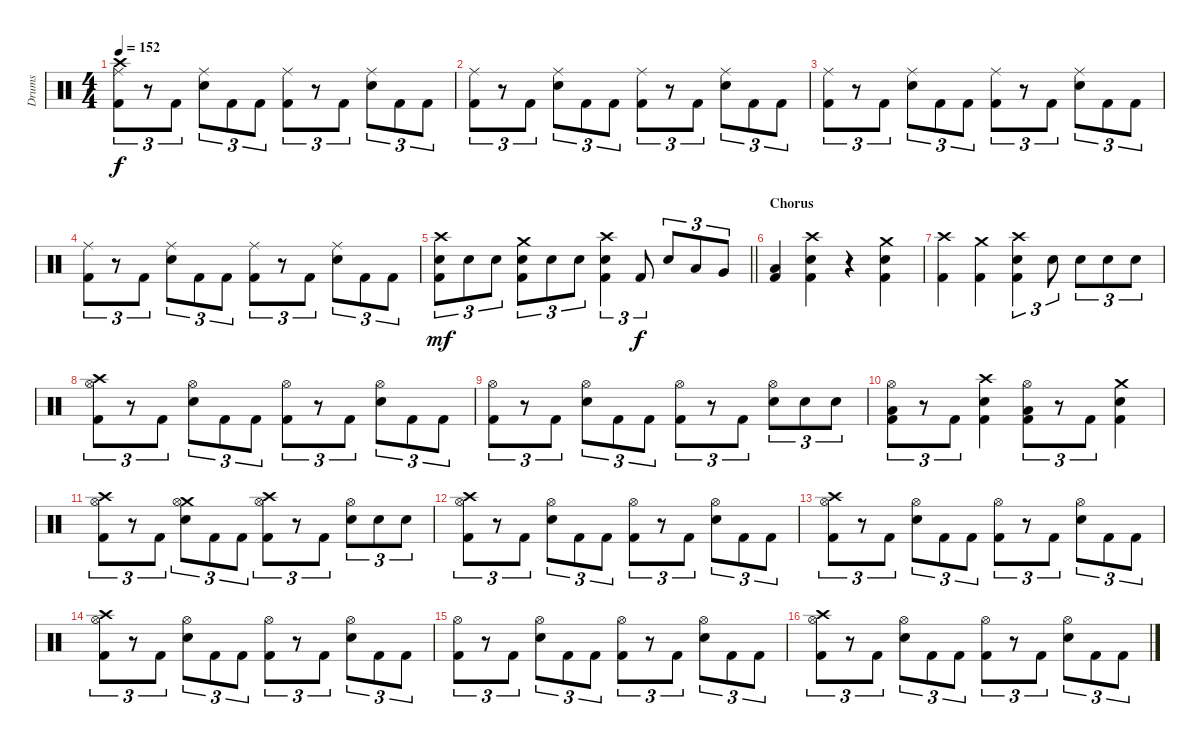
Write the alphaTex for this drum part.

\track ("Drums" "Drums") {instrument percussion}
\staff {score}
\articulation defaults
\ts (4 4)
\tempo 152
\clef neutral
\ks c
("Crash high (hit)" "Ride (middle)" "Kick (hit) 2").8{tu (3 2) dy f} r.8{tu (3 2)} "Kick (hit) 2".8{tu (3 2)} ("Ride (middle)" "Snare (hit) 2").8{tu (3 2)} "Kick (hit) 2".8{tu (3 2)} "Kick (hit) 2".8{tu (3 2)} ("Ride (middle)" "Kick (hit) 2").8{tu (3 2)} r.8{tu (3 2)} "Kick (hit) 2".8{tu (3 2)} ("Ride (middle)" "Snare (hit) 2").8{tu (3 2)} "Kick (hit) 2".8{tu (3 2)} "Kick (hit) 2".8{tu (3 2)} |
("Ride (middle)" "Kick (hit) 2").8{tu (3 2)} r.8{tu (3 2)} "Kick (hit) 2".8{tu (3 2)} ("Ride (middle)" "Snare (hit) 2").8{tu (3 2)} "Kick (hit) 2".8{tu (3 2)} "Kick (hit) 2".8{tu (3 2)} ("Ride (middle)" "Kick (hit) 2").8{tu (3 2)} r.8{tu (3 2)} "Kick (hit) 2".8{tu (3 2)} ("Ride (middle)" "Snare (hit) 2").8{tu (3 2)} "Kick (hit) 2".8{tu (3 2)} "Kick (hit) 2".8{tu (3 2)} |
("Ride (middle)" "Kick (hit) 2").8{tu (3 2)} r.8{tu (3 2)} "Kick (hit) 2".8{tu (3 2)} ("Ride (middle)" "Snare (hit) 2").8{tu (3 2)} "Kick (hit) 2".8{tu (3 2)} "Kick (hit) 2".8{tu (3 2)} ("Ride (middle)" "Kick (hit) 2").8{tu (3 2)} r.8{tu (3 2)} "Kick (hit) 2".8{tu (3 2)} ("Ride (middle)" "Snare (hit) 2").8{tu (3 2)} "Kick (hit) 2".8{tu (3 2)} "Kick (hit) 2".8{tu (3 2)} |
("Ride (middle)" "Kick (hit) 2").8{tu (3 2)} r.8{tu (3 2)} "Kick (hit) 2".8{tu (3 2)} ("Ride (middle)" "Snare (hit) 2").8{tu (3 2)} "Kick (hit) 2".8{tu (3 2)} "Kick (hit) 2".8{tu (3 2)} ("Ride (middle)" "Kick (hit) 2").8{tu (3 2)} r.8{tu (3 2)} "Kick (hit) 2".8{tu (3 2)} ("Ride (middle)" "Snare (hit) 2").8{tu (3 2)} "Kick (hit) 2".8{tu (3 2)} "Kick (hit) 2".8{tu (3 2)} |
\barLineRight lightlight
("Crash high (hit)" "Snare (hit) 2" "Kick (hit) 2").8{tu (3 2) dy mf} "Snare (hit) 2".8{tu (3 2)} "Snare (hit) 2".8{tu (3 2)} ("Crash medium (hit)" "Snare (hit) 2" "Kick (hit) 2").8{tu (3 2)} "Snare (hit) 2".8{tu (3 2)} "Snare (hit) 2".8{tu (3 2)} ("Crash high (hit)" "Snare (hit) 2" "Kick (hit) 2").4{tu (3 2)} "Kick (hit) 2".8{tu (3 2) dy f} "Snare (hit) 2".8{tu (3 2)} "Low Tom (hit)".8{tu (3 2)} "Very Low Tom (hit)".8{tu (3 2)} |
\section ("" "Chorus")
("Low Floor Tom (hit)" "Kick (hit) 2").4 ("Crash high (hit)" "Snare (hit) 2" "Kick (hit) 2").4 r.4 ("Crash medium (hit)" "Snare (hit) 2" "Kick (hit) 2").4 |
("Crash high (hit)" "Kick (hit) 2").4 ("Crash medium (hit)" "Kick (hit) 2").4 ("Crash high (hit)" "Snare (hit) 2" "Kick (hit) 2").4{tu (3 2)} "Snare (hit) 2".8{tu (3 2)} "Snare (hit) 2".8{tu (3 2)} "Snare (hit) 2".8{tu (3 2)} "Snare (hit) 2".8{tu (3 2)} |
("Crash high (hit)" "Hi-Hat (open)" "Kick (hit) 2").8{tu (3 2)} r.8{tu (3 2)} "Kick (hit) 2".8{tu (3 2)} ("Hi-Hat (open)" "Snare (hit) 2").8{tu (3 2)} "Kick (hit) 2".8{tu (3 2)} "Kick (hit) 2".8{tu (3 2)} ("Hi-Hat (open)" "Kick (hit) 2").8{tu (3 2)} r.8{tu (3 2)} "Kick (hit) 2".8{tu (3 2)} ("Hi-Hat (open)" "Snare (hit) 2").8{tu (3 2)} "Kick (hit) 2".8{tu (3 2)} "Kick (hit) 2".8{tu (3 2)} |
("Hi-Hat (open)" "Kick (hit) 2").8{tu (3 2)} r.8{tu (3 2)} "Kick (hit) 2".8{tu (3 2)} ("Hi-Hat (open)" "Snare (hit) 2").8{tu (3 2)} "Kick (hit) 2".8{tu (3 2)} "Kick (hit) 2".8{tu (3 2)} ("Hi-Hat (open)" "Kick (hit) 2").8{tu (3 2)} r.8{tu (3 2)} "Kick (hit) 2".8{tu (3 2)} ("Hi-Hat (open)" "Snare (hit) 2").8{tu (3 2)} "Snare (hit) 2".8{tu (3 2)} "Snare (hit) 2".8{tu (3 2)} |
("Hi-Hat (open)" "Low Floor Tom (hit)" "Kick (hit) 2").8{tu (3 2)} r.8{tu (3 2)} "Kick (hit) 2".8{tu (3 2)} ("Crash high (hit)" "Snare (hit) 2" "Kick (hit) 2").4 ("Hi-Hat (open)" "Low Floor Tom (hit)" "Kick (hit) 2").8{tu (3 2)} r.8{tu (3 2)} "Kick (hit) 2".8{tu (3 2)} ("Crash medium (hit)" "Snare (hit) 2" "Kick (hit) 2").4 |
("Crash high (hit)" "Hi-Hat (open)" "Kick (hit) 2").8{tu (3 2)} r.8{tu (3 2)} "Kick (hit) 2".8{tu (3 2)} ("Crash medium (hit)" "Hi-Hat (open)" "Snare (hit) 2").8{tu (3 2)} "Kick (hit) 2".8{tu (3 2)} "Kick (hit) 2".8{tu (3 2)} ("Crash high (hit)" "Hi-Hat (open)" "Kick (hit) 2").8{tu (3 2)} r.8{tu (3 2)} "Kick (hit) 2".8{tu (3 2)} ("Hi-Hat (open)" "Snare (hit) 2").8{tu (3 2)} "Snare (hit) 2".8{tu (3 2)} "Snare (hit) 2".8{tu (3 2)} |
("Crash high (hit)" "Hi-Hat (open)" "Kick (hit) 2").8{tu (3 2)} r.8{tu (3 2)} "Kick (hit) 2".8{tu (3 2)} ("Hi-Hat (open)" "Snare (hit) 2").8{tu (3 2)} "Kick (hit) 2".8{tu (3 2)} "Kick (hit) 2".8{tu (3 2)} ("Hi-Hat (open)" "Kick (hit) 2").8{tu (3 2)} r.8{tu (3 2)} "Kick (hit) 2".8{tu (3 2)} ("Hi-Hat (open)" "Snare (hit) 2").8{tu (3 2)} "Kick (hit) 2".8{tu (3 2)} "Kick (hit) 2".8{tu (3 2)} |
("Crash high (hit)" "Hi-Hat (open)" "Kick (hit) 2").8{tu (3 2)} r.8{tu (3 2)} "Kick (hit) 2".8{tu (3 2)} ("Hi-Hat (open)" "Snare (hit) 2").8{tu (3 2)} "Kick (hit) 2".8{tu (3 2)} "Kick (hit) 2".8{tu (3 2)} ("Hi-Hat (open)" "Kick (hit) 2").8{tu (3 2)} r.8{tu (3 2)} "Kick (hit) 2".8{tu (3 2)} ("Hi-Hat (open)" "Snare (hit) 2").8{tu (3 2)} "Kick (hit) 2".8{tu (3 2)} "Kick (hit) 2".8{tu (3 2)} |
("Crash high (hit)" "Hi-Hat (open)" "Kick (hit) 2").8{tu (3 2)} r.8{tu (3 2)} "Kick (hit) 2".8{tu (3 2)} ("Hi-Hat (open)" "Snare (hit) 2").8{tu (3 2)} "Kick (hit) 2".8{tu (3 2)} "Kick (hit) 2".8{tu (3 2)} ("Hi-Hat (open)" "Kick (hit) 2").8{tu (3 2)} r.8{tu (3 2)} "Kick (hit) 2".8{tu (3 2)} ("Hi-Hat (open)" "Snare (hit) 2").8{tu (3 2)} "Kick (hit) 2".8{tu (3 2)} "Kick (hit) 2".8{tu (3 2)} |
("Hi-Hat (open)" "Kick (hit) 2").8{tu (3 2)} r.8{tu (3 2)} "Kick (hit) 2".8{tu (3 2)} ("Hi-Hat (open)" "Snare (hit) 2").8{tu (3 2)} "Kick (hit) 2".8{tu (3 2)} "Kick (hit) 2".8{tu (3 2)} ("Hi-Hat (open)" "Kick (hit) 2").8{tu (3 2)} r.8{tu (3 2)} "Kick (hit) 2".8{tu (3 2)} ("Hi-Hat (open)" "Snare (hit) 2").8{tu (3 2)} "Kick (hit) 2".8{tu (3 2)} "Kick (hit) 2".8{tu (3 2)} |
("Crash high (hit)" "Hi-Hat (open)" "Kick (hit) 2").8{tu (3 2)} r.8{tu (3 2)} "Kick (hit) 2".8{tu (3 2)} ("Hi-Hat (open)" "Snare (hit) 2").8{tu (3 2)} "Kick (hit) 2".8{tu (3 2)} "Kick (hit) 2".8{tu (3 2)} ("Hi-Hat (open)" "Kick (hit) 2").8{tu (3 2)} r.8{tu (3 2)} "Kick (hit) 2".8{tu (3 2)} ("Hi-Hat (open)" "Snare (hit) 2").8{tu (3 2)} "Kick (hit) 2".8{tu (3 2)} "Kick (hit) 2".8{tu (3 2)}
